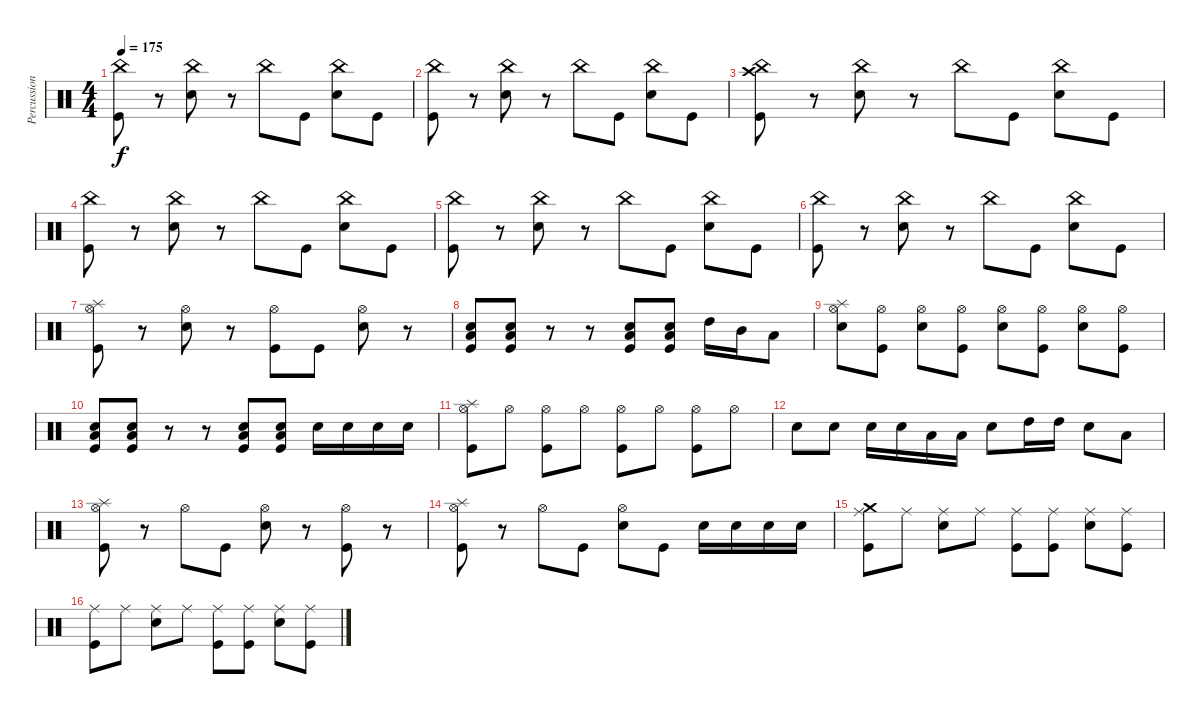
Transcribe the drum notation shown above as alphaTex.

\track ("Percussion" "Percussion") {instrument percussion}
\staff {score}
\articulation defaults
\ts (4 4)
\tempo 175
\clef neutral
\ks c
("China (hit)" "Kick (hit)").8{dy f} r.8 ("China (hit)" "Snare (hit) 2").8 r.8 "China (hit)".8 "Kick (hit)".8 ("China (hit)" "Snare (hit) 2").8 "Kick (hit)".8 |
("China (hit)" "Kick (hit)").8 r.8 ("China (hit)" "Snare (hit) 2").8 r.8 "China (hit)".8 "Kick (hit)".8 ("China (hit)" "Snare (hit) 2").8 "Kick (hit)".8 |
("Crash high (hit)" "China (hit)" "Kick (hit)").8 r.8 ("China (hit)" "Snare (hit) 2").8 r.8 "China (hit)".8 "Kick (hit)".8 ("China (hit)" "Snare (hit) 2").8 "Kick (hit)".8 |
("China (hit)" "Kick (hit)").8 r.8 ("China (hit)" "Snare (hit) 2").8 r.8 "China (hit)".8 "Kick (hit)".8 ("China (hit)" "Snare (hit) 2").8 "Kick (hit)".8 |
("China (hit)" "Kick (hit)").8 r.8 ("China (hit)" "Snare (hit) 2").8 r.8 "China (hit)".8 "Kick (hit)".8 ("China (hit)" "Snare (hit) 2").8 "Kick (hit)".8 |
("China (hit)" "Kick (hit)").8 r.8 ("China (hit)" "Snare (hit) 2").8 r.8 "China (hit)".8 "Kick (hit)".8 ("China (hit)" "Snare (hit) 2").8 "Kick (hit)".8 |
("Splash (hit)" "Kick (hit)" "Hi-Hat (open)").8 r.8 ("Snare (hit) 2" "Hi-Hat (open)").8 r.8 ("Kick (hit)" "Hi-Hat (open)").8 "Kick (hit)".8 ("Snare (hit) 2" "Hi-Hat (open)").8 r.8 |
("Kick (hit)" "Low Tom (hit)" "Snare (hit) 2").8 ("Kick (hit)" "Low Tom (hit)" "Snare (hit) 2").8 r.8 r.8 ("Kick (hit)" "Low Tom (hit)" "Snare (hit) 2").8 ("Kick (hit)" "Low Tom (hit)" "Snare (hit) 2").8 "High Tom (hit)".16 "Mid Tom (hit)".16 "Low Tom (hit)".8 |
("Splash (hit)" "Snare (hit) 2" "Hi-Hat (open)").8 ("Kick (hit)" "Hi-Hat (open)").8 ("Snare (hit) 2" "Hi-Hat (open)").8 ("Kick (hit)" "Hi-Hat (open)").8 ("Snare (hit) 2" "Hi-Hat (open)").8 ("Kick (hit)" "Hi-Hat (open)").8 ("Snare (hit) 2" "Hi-Hat (open)").8 ("Kick (hit)" "Hi-Hat (open)").8 |
("Kick (hit)" "Low Tom (hit)" "Snare (hit) 2").8 ("Kick (hit)" "Low Tom (hit)" "Snare (hit) 2").8 r.8 r.8 ("Kick (hit)" "Low Tom (hit)" "Snare (hit) 2").8 ("Kick (hit)" "Low Tom (hit)" "Snare (hit) 2").8 "Snare (hit) 2".16 "Snare (hit) 2".16 "Snare (hit) 2".16 "Snare (hit) 2".16 |
("Splash (hit)" "Kick (hit)" "Hi-Hat (open)").8 "Hi-Hat (open)".8 ("Kick (hit)" "Hi-Hat (open)").8 "Hi-Hat (open)".8 ("Kick (hit)" "Hi-Hat (open)").8 "Hi-Hat (open)".8 ("Kick (hit)" "Hi-Hat (open)").8 "Hi-Hat (open)".8 |
"Snare (hit) 2".8 "Snare (hit) 2".8 "Snare (hit) 2".16 "Snare (hit) 2".16 "Low Tom (hit)".16 "Low Tom (hit)".16 "Snare (hit) 2".8 "High Tom (hit)".16 "High Tom (hit)".16 "Snare (hit) 2".8 "Low Tom (hit)".8 |
("Splash (hit)" "Hi-Hat (open)" "Kick (hit)").8 r.8 "Hi-Hat (open)".8 "Kick (hit)".8 ("Hi-Hat (open)" "Snare (hit) 2").8 r.8 ("Hi-Hat (open)" "Kick (hit)").8 r.8 |
("Splash (hit)" "Hi-Hat (open)" "Kick (hit)").8 r.8 "Hi-Hat (open)".8 "Kick (hit)".8 ("Hi-Hat (open)" "Snare (hit) 2").8 "Kick (hit)".8 "Snare (hit) 2".16 "Snare (hit) 2".16 "Snare (hit) 2".16 "Snare (hit) 2".16 |
("Crash medium (hit)" "Ride (middle)" "Kick (hit)").8 "Ride (middle)".8 ("Ride (middle)" "Snare (hit) 2").8 "Ride (middle)".8 ("Ride (middle)" "Kick (hit)").8 ("Ride (middle)" "Kick (hit)").8 ("Ride (middle)" "Snare (hit) 2").8 ("Ride (middle)" "Kick (hit)").8 |
("Ride (middle)" "Kick (hit)").8 "Ride (middle)".8 ("Ride (middle)" "Snare (hit) 2").8 "Ride (middle)".8 ("Ride (middle)" "Kick (hit)").8 ("Ride (middle)" "Kick (hit)").8 ("Ride (middle)" "Snare (hit) 2").8 ("Ride (middle)" "Kick (hit)").8
